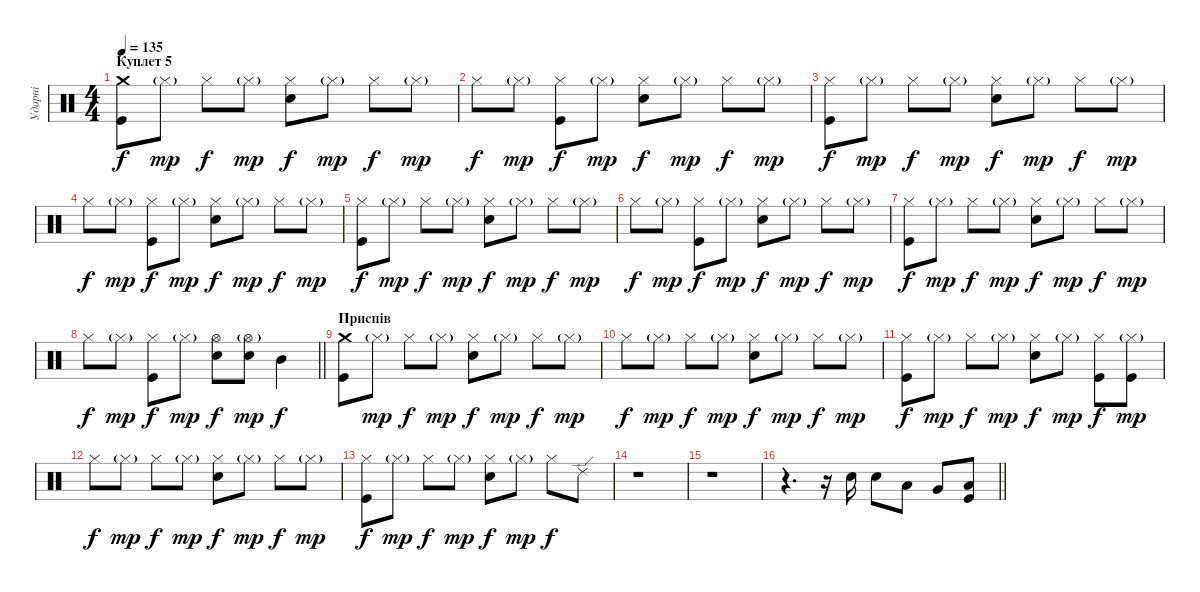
\track ("Ударні" "Ударні") {instrument percussion}
\staff {score}
\articulation defaults
\ts (4 4)
\section ("" "Куплет 5")
\tempo 135
\clef neutral
\ks c
("Crash medium (hit)" "Kick (hit)").8{dy f} "Hi-Hat (closed)"{g}.8{dy mp} "Hi-Hat (closed)".8{dy f} "Hi-Hat (closed)"{g}.8{dy mp} ("Snare (hit) 2" "Hi-Hat (closed)").8{dy f} "Hi-Hat (closed)"{g}.8{dy mp} "Hi-Hat (closed)".8{dy f} "Hi-Hat (closed)"{g}.8{dy mp} |
"Hi-Hat (closed)".8{dy f} "Hi-Hat (closed)"{g}.8{dy mp} ("Hi-Hat (closed)" "Kick (hit)").8{dy f} "Hi-Hat (closed)"{g}.8{dy mp} ("Snare (hit) 2" "Hi-Hat (closed)").8{dy f} "Hi-Hat (closed)"{g}.8{dy mp} "Hi-Hat (closed)".8{dy f} "Hi-Hat (closed)"{g}.8{dy mp} |
("Hi-Hat (closed)" "Kick (hit)").8{dy f} "Hi-Hat (closed)"{g}.8{dy mp} "Hi-Hat (closed)".8{dy f} "Hi-Hat (closed)"{g}.8{dy mp} ("Snare (hit) 2" "Hi-Hat (closed)").8{dy f} "Hi-Hat (closed)"{g}.8{dy mp} "Hi-Hat (closed)".8{dy f} "Hi-Hat (closed)"{g}.8{dy mp} |
"Hi-Hat (closed)".8{dy f} "Hi-Hat (closed)"{g}.8{dy mp} ("Hi-Hat (closed)" "Kick (hit)").8{dy f} "Hi-Hat (closed)"{g}.8{dy mp} ("Snare (hit) 2" "Hi-Hat (closed)").8{dy f} "Hi-Hat (closed)"{g}.8{dy mp} "Hi-Hat (closed)".8{dy f} "Hi-Hat (closed)"{g}.8{dy mp} |
("Hi-Hat (closed)" "Kick (hit)").8{dy f} "Hi-Hat (closed)"{g}.8{dy mp} "Hi-Hat (closed)".8{dy f} "Hi-Hat (closed)"{g}.8{dy mp} ("Snare (hit) 2" "Hi-Hat (closed)").8{dy f} "Hi-Hat (closed)"{g}.8{dy mp} "Hi-Hat (closed)".8{dy f} "Hi-Hat (closed)"{g}.8{dy mp} |
"Hi-Hat (closed)".8{dy f} "Hi-Hat (closed)"{g}.8{dy mp} ("Hi-Hat (closed)" "Kick (hit)").8{dy f} "Hi-Hat (closed)"{g}.8{dy mp} ("Snare (hit) 2" "Hi-Hat (closed)").8{dy f} "Hi-Hat (closed)"{g}.8{dy mp} "Hi-Hat (closed)".8{dy f} "Hi-Hat (closed)"{g}.8{dy mp} |
("Hi-Hat (closed)" "Kick (hit)").8{dy f} "Hi-Hat (closed)"{g}.8{dy mp} "Hi-Hat (closed)".8{dy f} "Hi-Hat (closed)"{g}.8{dy mp} ("Snare (hit) 2" "Hi-Hat (closed)").8{dy f} "Hi-Hat (closed)"{g}.8{dy mp} "Hi-Hat (closed)".8{dy f} "Hi-Hat (closed)"{g}.8{dy mp} |
\barLineRight lightlight "Hi-Hat (closed)".8{dy f} "Hi-Hat (closed)"{g}.8{dy mp}
("Hi-Hat (closed)" "Kick (hit)").8{dy f} "Hi-Hat (closed)"{g}.8{dy mp} ("Snare (hit) 2" "Hi-Hat (open)").8{dy f} ("Snare (hit) 2" "Hi-Hat (open)"{g}).8{dy mp} "Mid Tom (hit)".4{dy f} |
\section ("" "Приспів")
("Crash medium (hit)" "Kick (hit)").8 "Hi-Hat (closed)"{g}.8{dy mp} "Hi-Hat (closed)".8{dy f} "Hi-Hat (closed)"{g}.8{dy mp} ("Snare (hit) 2" "Hi-Hat (closed)").8{dy f} "Hi-Hat (closed)"{g}.8{dy mp} "Hi-Hat (closed)".8{dy f} "Hi-Hat (closed)"{g}.8{dy mp} |
"Hi-Hat (closed)".8{dy f} "Hi-Hat (closed)"{g}.8{dy mp} "Hi-Hat (closed)".8{dy f} "Hi-Hat (closed)"{g}.8{dy mp} ("Snare (hit) 2" "Hi-Hat (closed)").8{dy f} "Hi-Hat (closed)"{g}.8{dy mp} "Hi-Hat (closed)".8{dy f} "Hi-Hat (closed)"{g}.8{dy mp} |
("Hi-Hat (closed)" "Kick (hit)").8{dy f} "Hi-Hat (closed)"{g}.8{dy mp} "Hi-Hat (closed)".8{dy f} "Hi-Hat (closed)"{g}.8{dy mp} ("Snare (hit) 2" "Hi-Hat (closed)").8{dy f} "Hi-Hat (closed)"{g}.8{dy mp} ("Hi-Hat (closed)" "Kick (hit)").8{dy f} ("Hi-Hat (closed)"{g} "Kick (hit)").8{dy mp} |
"Hi-Hat (closed)".8{dy f} "Hi-Hat (closed)"{g}.8{dy mp} "Hi-Hat (closed)".8{dy f} "Hi-Hat (closed)"{g}.8{dy mp} ("Snare (hit) 2" "Hi-Hat (closed)").8{dy f} "Hi-Hat (closed)"{g}.8{dy mp} "Hi-Hat (closed)".8{dy f} "Hi-Hat (closed)"{g}.8{dy mp} |
("Hi-Hat (closed)" "Kick (hit)").8{dy f} "Hi-Hat (closed)"{g}.8{dy mp} "Hi-Hat (closed)".8{dy f} "Hi-Hat (closed)"{g}.8{dy mp} ("Snare (hit) 2" "Hi-Hat (closed)").8{dy f} "Hi-Hat (closed)"{g}.8{dy mp} "Hi-Hat (closed)".8{dy f} "Ride (edge) 2".8 |
r.1 |
r.1 |
\barLineRight lightlight
r.4{d} r.16 "Snare (hit) 2".16 "Snare (hit) 2".8 "Low Tom (hit)".8 "Very Low Tom (hit)".8 ("Low Floor Tom (hit)" "Kick (hit)").8
